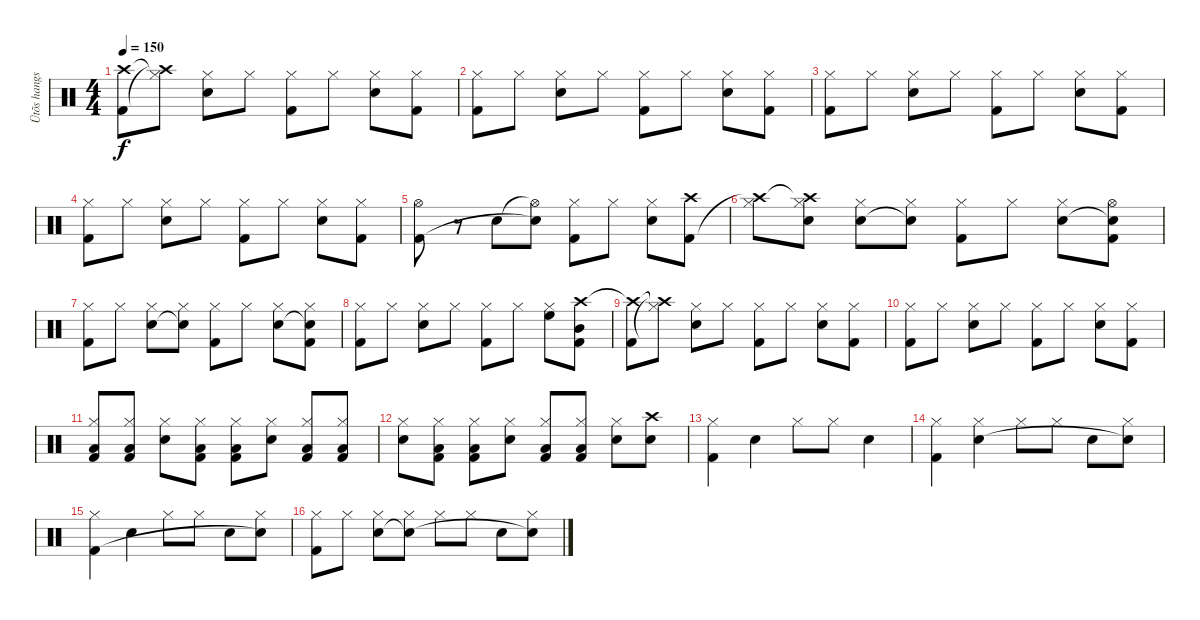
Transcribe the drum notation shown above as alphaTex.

\track ("Ütõs hangszer" "Ütõs hangs") {instrument percussion}
\staff {score}
\articulation defaults
\ts (4 4)
\tempo 150
\clef neutral
\ks c
("Crash high (hit)"{t} "Kick (hit) 2").8{dy f} ("Hi-Hat (closed)"{t} "Crash high (hit)"{t}).8 ("Hi-Hat (closed)" "Snare (hit) 2").8 "Hi-Hat (closed)".8 ("Hi-Hat (closed)" "Kick (hit) 2").8 "Hi-Hat (closed)".8 ("Hi-Hat (closed)" "Snare (hit) 2").8 ("Hi-Hat (closed)" "Kick (hit) 2").8 |
("Hi-Hat (closed)" "Kick (hit) 2").8 "Hi-Hat (closed)".8 ("Hi-Hat (closed)" "Snare (hit) 2").8 "Hi-Hat (closed)".8 ("Hi-Hat (closed)" "Kick (hit) 2").8 "Hi-Hat (closed)".8 ("Hi-Hat (closed)" "Snare (hit) 2").8 ("Hi-Hat (closed)" "Kick (hit) 2").8 |
("Hi-Hat (closed)" "Kick (hit) 2").8 "Hi-Hat (closed)".8 ("Hi-Hat (closed)" "Snare (hit) 2").8 "Hi-Hat (closed)".8 ("Hi-Hat (closed)" "Kick (hit) 2").8 "Hi-Hat (closed)".8 ("Hi-Hat (closed)" "Snare (hit) 2").8 ("Hi-Hat (closed)" "Kick (hit) 2").8 |
("Hi-Hat (closed)" "Kick (hit) 2").8 "Hi-Hat (closed)".8 ("Hi-Hat (closed)" "Snare (hit) 2").8 "Hi-Hat (closed)".8 ("Hi-Hat (closed)" "Kick (hit) 2").8 "Hi-Hat (closed)".8 ("Hi-Hat (closed)" "Snare (hit) 2").8 ("Hi-Hat (closed)" "Kick (hit) 2").8 |
("Hi-Hat (open)" "Kick (hit) 2").8 r.8 "Snare (hit) 2".8 ("Hi-Hat (open)"{t} "Snare (hit) 2"{t}).8 ("Hi-Hat (closed)" "Kick (hit) 2").8 "Hi-Hat (closed)".8 ("Hi-Hat (closed)" "Snare (hit) 2").8 ("Crash high (hit)" "Kick (hit) 2").8 |
("Hi-Hat (closed)" "Crash high (hit)"{t}).8 ("Hi-Hat (closed)" "Crash high (hit)"{t} "Snare (hit) 2").8 ("Hi-Hat (closed)" "Snare (hit) 2").8 ("Hi-Hat (closed)" "Snare (hit) 2"{t}).8 ("Hi-Hat (closed)" "Kick (hit) 2").8 "Hi-Hat (closed)".8 ("Hi-Hat (closed)" "Snare (hit) 2").8 ("Hi-Hat (open)" "Snare (hit) 2"{t} "Kick (hit) 2").8 |
("Hi-Hat (closed)" "Kick (hit) 2").8 "Hi-Hat (closed)".8 ("Hi-Hat (closed)" "Snare (hit) 2").8 ("Hi-Hat (closed)" "Snare (hit) 2"{t}).8 ("Hi-Hat (closed)" "Kick (hit) 2").8 "Hi-Hat (closed)".8 ("Hi-Hat (closed)" "Snare (hit) 2").8 ("Hi-Hat (closed)" "Snare (hit) 2"{t} "Kick (hit) 2").8 |
("Hi-Hat (closed)" "Kick (hit) 2").8 "Hi-Hat (closed)".8 ("Hi-Hat (closed)" "Snare (hit) 2").8 "Hi-Hat (closed)".8 ("Hi-Hat (closed)" "Kick (hit) 2").8 "Hi-Hat (closed)".8 ("Hi-Hat (closed)" "High Floor Tom (hit)").8 ("Crash high (hit)" "Mid Tom (hit)" "Kick (hit) 2").8 |
("Crash high (hit)"{t} "Kick (hit) 2").8 ("Hi-Hat (closed)"{t} "Crash high (hit)"{t}).8 ("Hi-Hat (closed)" "Snare (hit) 2").8 "Hi-Hat (closed)".8 ("Hi-Hat (closed)" "Kick (hit) 2").8 "Hi-Hat (closed)".8 ("Hi-Hat (closed)" "Snare (hit) 2").8 ("Hi-Hat (closed)" "Kick (hit) 2").8 |
("Hi-Hat (closed)" "Kick (hit) 2").8 "Hi-Hat (closed)".8 ("Hi-Hat (closed)" "Snare (hit) 2").8 "Hi-Hat (closed)".8 ("Hi-Hat (closed)" "Kick (hit) 2").8 "Hi-Hat (closed)".8 ("Hi-Hat (closed)" "Snare (hit) 2").8 ("Hi-Hat (closed)" "Kick (hit) 2").8 |
("Hi-Hat (closed)" "Low Floor Tom (hit)" "Kick (hit) 2").8 ("Hi-Hat (closed)" "Low Floor Tom (hit)" "Kick (hit) 2").8 ("Hi-Hat (closed)" "Snare (hit) 2").8 ("Hi-Hat (closed)" "Low Floor Tom (hit)" "Kick (hit) 2").8 ("Hi-Hat (closed)" "Low Floor Tom (hit)" "Kick (hit) 2").8 ("Hi-Hat (closed)" "Snare (hit) 2").8 ("Hi-Hat (closed)" "Low Floor Tom (hit)" "Kick (hit) 2").8 ("Hi-Hat (closed)" "Low Floor Tom (hit)" "Kick (hit) 2").8 |
("Hi-Hat (closed)" "Snare (hit) 2").8 ("Hi-Hat (closed)" "Low Floor Tom (hit)" "Kick (hit) 2").8 ("Hi-Hat (closed)" "Low Floor Tom (hit)" "Kick (hit) 2").8 ("Hi-Hat (closed)" "Snare (hit) 2").8 ("Hi-Hat (closed)" "Low Floor Tom (hit)" "Kick (hit) 2").8 ("Hi-Hat (closed)" "Low Floor Tom (hit)" "Kick (hit) 2").8 ("Hi-Hat (closed)" "Snare (hit) 2").8 ("Crash high (hit)" "Snare (hit) 2").8 |
("Hi-Hat (closed)" "Kick (hit) 2").4 "Snare (hit) 2".4 "Hi-Hat (closed)".8 "Hi-Hat (closed)".8 "Snare (hit) 2".4 |
("Hi-Hat (closed)" "Kick (hit) 2").4 ("Hi-Hat (closed)" "Snare (hit) 2").4 "Hi-Hat (closed)".8 "Hi-Hat (closed)".8 "Snare (hit) 2".8 ("Hi-Hat (closed)" "Snare (hit) 2"{t}).8 |
("Hi-Hat (closed)" "Kick (hit) 2").4 "Snare (hit) 2".4 "Hi-Hat (closed)".8 "Hi-Hat (closed)".8 "Snare (hit) 2".8 ("Hi-Hat (closed)" "Snare (hit) 2"{t}).8 |
("Hi-Hat (closed)" "Kick (hit) 2").8 "Hi-Hat (closed)".8 ("Hi-Hat (closed)" "Snare (hit) 2").8 ("Hi-Hat (closed)" "Snare (hit) 2"{t}).8 "Hi-Hat (closed)".8 "Hi-Hat (closed)".8 "Snare (hit) 2".8 ("Hi-Hat (closed)" "Snare (hit) 2"{t}).8
